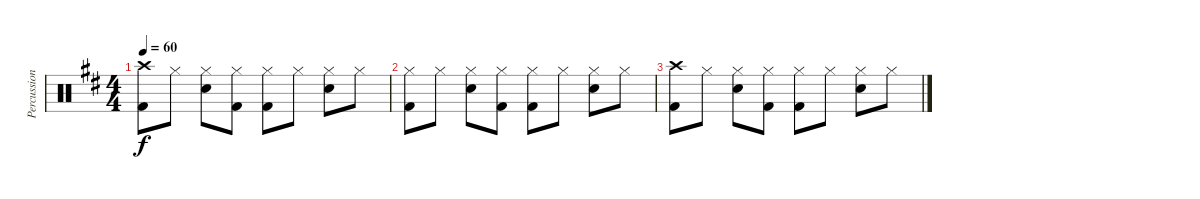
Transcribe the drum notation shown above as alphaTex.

\track ("Percussioni" "Percussion") {instrument percussion}
\staff {score}
\articulation defaults
\ts (4 4)
\tempo 60
\clef neutral
\ks d
("Crash high (hit)" "Kick (hit) 2").8{dy f} "Hi-Hat (closed)".8 ("Hi-Hat (closed)" "Electric Snare (hit)").8 ("Hi-Hat (closed)" "Kick (hit) 2").8 ("Hi-Hat (closed)" "Kick (hit) 2").8 "Hi-Hat (closed)".8 ("Hi-Hat (closed)" "Electric Snare (hit)").8 "Hi-Hat (closed)".8 |
("Hi-Hat (closed)" "Kick (hit) 2").8 "Hi-Hat (closed)".8 ("Hi-Hat (closed)" "Electric Snare (hit)").8 ("Hi-Hat (closed)" "Kick (hit) 2").8 ("Hi-Hat (closed)" "Kick (hit) 2").8 "Hi-Hat (closed)".8 ("Hi-Hat (closed)" "Electric Snare (hit)").8 "Hi-Hat (closed)".8 |
("Crash high (hit)" "Kick (hit) 2").8 "Hi-Hat (closed)".8 ("Hi-Hat (closed)" "Electric Snare (hit)").8 ("Hi-Hat (closed)" "Kick (hit) 2").8 ("Hi-Hat (closed)" "Kick (hit) 2").8 "Hi-Hat (closed)".8 ("Hi-Hat (closed)" "Electric Snare (hit)").8 "Hi-Hat (closed)".8
